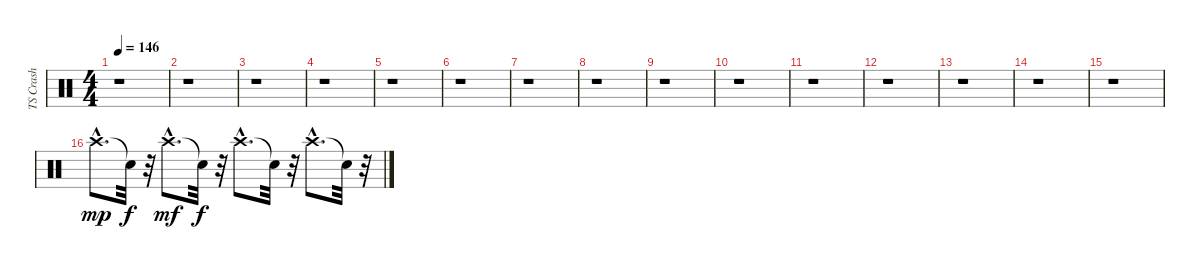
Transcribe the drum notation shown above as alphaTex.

\track ("TS Crash" "TS Crash") {instrument percussion}
\staff {score}
\articulation defaults
\ts (4 4)
\tempo 146
\clef neutral
\ks c
r.1{dy mp} |
r.1 |
r.1 |
r.1 |
r.1 |
r.1 |
r.1 |
r.1 |
r.1 |
r.1 |
r.1 |
r.1 |
r.1 |
r.1 |
r.1 |
"Crash high (hit)"{hac}.8{d} "Snare (hit)"{t}.32{dy f} r.32 "Crash high (hit)"{hac}.8{d dy mf} "Snare (hit)"{t}.32{dy f} r.32 "Crash high (hit)"{hac}.8{d} "Snare (hit)"{t}.32 r.32 "Crash high (hit)"{hac}.8{d} "Snare (hit)"{t}.32 r.32
